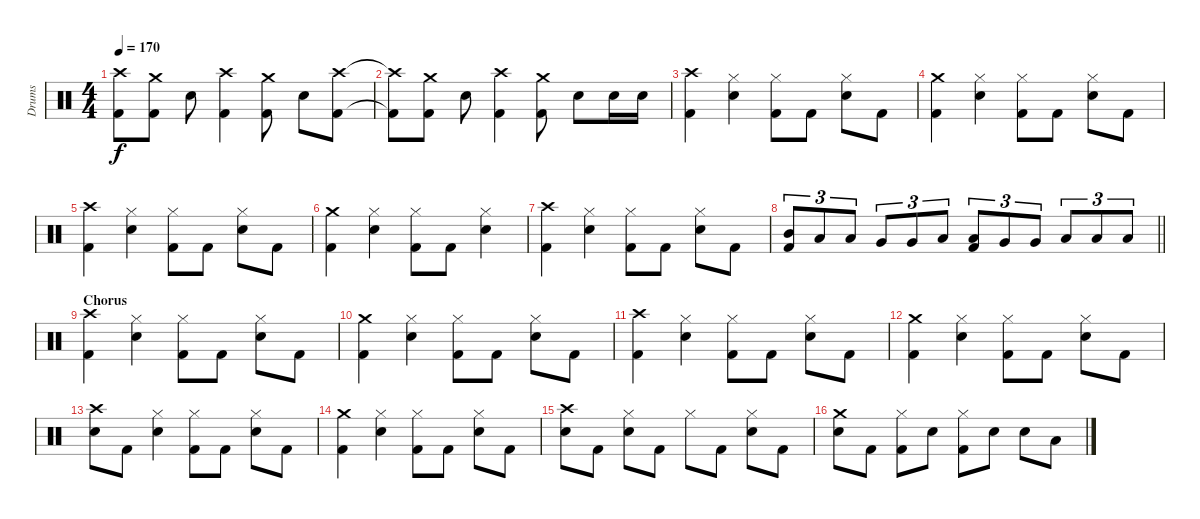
\track ("Drums" "Drums") {instrument percussion}
\staff {score}
\articulation defaults
\ts (4 4)
\tempo 170
\clef neutral
\ks c
("Kick (hit) 2" "Crash high (hit)").8{dy f} ("Kick (hit) 2" "Crash medium (hit)").8 "Electric Snare (hit)".8 ("Kick (hit) 2" "Crash high (hit)").4 ("Kick (hit) 2" "Crash medium (hit)").8 "Electric Snare (hit)".8 ("Kick (hit) 2" "Crash high (hit)").8 |
("Kick (hit) 2"{t} "Crash high (hit)"{t}).8 ("Kick (hit) 2" "Crash medium (hit)").8 "Electric Snare (hit)".8 ("Kick (hit) 2" "Crash high (hit)").4 ("Kick (hit) 2" "Crash medium (hit)").8 "Electric Snare (hit)".8 "Electric Snare (hit)".16 "Electric Snare (hit)".16 |
("Kick (hit) 2" "Crash high (hit)").4 ("Hi-Hat (closed)" "Electric Snare (hit)").4 ("Kick (hit) 2" "Hi-Hat (closed)").8 "Kick (hit) 2".8 ("Hi-Hat (closed)" "Electric Snare (hit)").8 "Kick (hit) 2".8 |
("Kick (hit) 2" "Crash medium (hit)").4 ("Hi-Hat (closed)" "Electric Snare (hit)").4 ("Kick (hit) 2" "Hi-Hat (closed)").8 "Kick (hit) 2".8 ("Hi-Hat (closed)" "Electric Snare (hit)").8 "Kick (hit) 2".8 |
("Kick (hit) 2" "Crash high (hit)").4 ("Hi-Hat (closed)" "Electric Snare (hit)").4 ("Kick (hit) 2" "Hi-Hat (closed)").8 "Kick (hit) 2".8 ("Hi-Hat (closed)" "Electric Snare (hit)").8 "Kick (hit) 2".8 |
("Kick (hit) 2" "Crash medium (hit)").4 ("Hi-Hat (closed)" "Electric Snare (hit)").4 ("Kick (hit) 2" "Hi-Hat (closed)").8 "Kick (hit) 2".8 ("Hi-Hat (closed)" "Electric Snare (hit)").4 |
("Kick (hit) 2" "Crash high (hit)").4 ("Hi-Hat (closed)" "Electric Snare (hit)").4 ("Kick (hit) 2" "Hi-Hat (closed)").8 "Kick (hit) 2".8 ("Hi-Hat (closed)" "Electric Snare (hit)").8 "Kick (hit) 2".8 |
\barLineRight lightlight
("Kick (hit) 2" "Mid Tom (hit)").8{tu (3 2)} "Low Tom (hit)".8{tu (3 2)} "Low Tom (hit)".8{tu (3 2)} "Very Low Tom (hit)".8{tu (3 2)} "Very Low Tom (hit)".8{tu (3 2)} "Low Floor Tom (hit)".8{tu (3 2)} ("Kick (hit) 2" "Low Tom (hit)").8{tu (3 2)} "Very Low Tom (hit)".8{tu (3 2)} "Very Low Tom (hit)".8{tu (3 2)} "Low Floor Tom (hit)".8{tu (3 2)} "Low Floor Tom (hit)".8{tu (3 2)} "Low Floor Tom (hit)".8{tu (3 2)} |
\section ("" "Chorus")
("Kick (hit) 2" "Crash high (hit)").4 ("Hi-Hat (closed)" "Electric Snare (hit)").4 ("Kick (hit) 2" "Hi-Hat (closed)").8 "Kick (hit) 2".8 ("Hi-Hat (closed)" "Electric Snare (hit)").8 "Kick (hit) 2".8 |
("Kick (hit) 2" "Crash medium (hit)").4 ("Hi-Hat (closed)" "Electric Snare (hit)").4 ("Kick (hit) 2" "Hi-Hat (closed)").8 "Kick (hit) 2".8 ("Hi-Hat (closed)" "Electric Snare (hit)").8 "Kick (hit) 2".8 |
("Kick (hit) 2" "Crash high (hit)").4 ("Hi-Hat (closed)" "Electric Snare (hit)").4 ("Kick (hit) 2" "Hi-Hat (closed)").8 "Kick (hit) 2".8 ("Hi-Hat (closed)" "Electric Snare (hit)").8 "Kick (hit) 2".8 |
("Kick (hit) 2" "Crash medium (hit)").4 ("Hi-Hat (closed)" "Electric Snare (hit)").4 ("Kick (hit) 2" "Hi-Hat (closed)").8 "Kick (hit) 2".8 ("Hi-Hat (closed)" "Electric Snare (hit)").8 "Kick (hit) 2".8 |
("Crash high (hit)" "Electric Snare (hit)").8 "Kick (hit) 2".8 ("Hi-Hat (closed)" "Electric Snare (hit)").4 ("Kick (hit) 2" "Hi-Hat (closed)").8 "Kick (hit) 2".8 ("Hi-Hat (closed)" "Electric Snare (hit)").8 "Kick (hit) 2".8 |
("Kick (hit) 2" "Crash medium (hit)").4 ("Hi-Hat (closed)" "Electric Snare (hit)").4 ("Kick (hit) 2" "Hi-Hat (closed)").8 "Kick (hit) 2".8 ("Hi-Hat (closed)" "Electric Snare (hit)").8 "Kick (hit) 2".8 |
("Crash high (hit)" "Electric Snare (hit)").8 "Kick (hit) 2".8 ("Hi-Hat (closed)" "Electric Snare (hit)").8 "Kick (hit) 2".8 "Hi-Hat (closed)".8 "Kick (hit) 2".8 ("Hi-Hat (closed)" "Electric Snare (hit)").8 "Kick (hit) 2".8 |
("Crash medium (hit)" "Electric Snare (hit)").8 "Kick (hit) 2".8 ("Kick (hit) 2" "Hi-Hat (closed)").8 "Electric Snare (hit)".8 ("Kick (hit) 2" "Hi-Hat (closed)").8 "Electric Snare (hit)".8 "Electric Snare (hit)".8 "Low Tom (hit)".8
